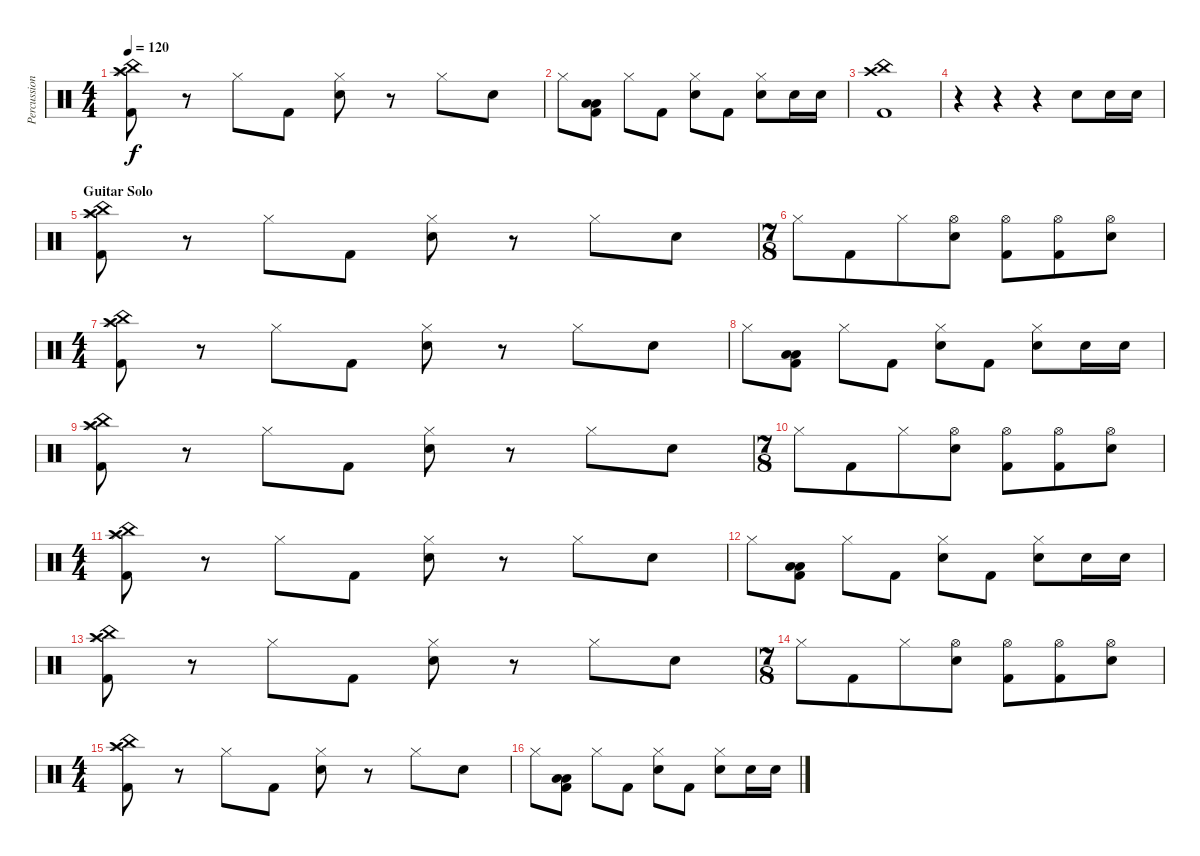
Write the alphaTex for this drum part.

\track ("Percussion" "Percussion") {instrument percussion}
\staff {score}
\articulation defaults
\ts (4 4)
\tempo 120
\clef neutral
\ks c
("Splash (hit)" "Crash high (hit)" "China (hit)" "Kick (hit) 2").8{dy f} r.8 "Hi-Hat (closed)".8 "Kick (hit) 2".8 ("Hi-Hat (closed)" "Electric Snare (hit)").8 r.8 "Hi-Hat (closed)".8 "Electric Snare (hit)".8 |
"Hi-Hat (closed)".8 ("Low Tom (hit)" "Low Floor Tom (hit)" "Kick (hit) 2").8 "Hi-Hat (closed)".8 "Kick (hit) 2".8 ("Hi-Hat (closed)" "Electric Snare (hit)").8 "Kick (hit) 2".8 ("Hi-Hat (closed)" "Electric Snare (hit)").8 "Electric Snare (hit)".16 "Electric Snare (hit)".16 |
("China (hit)" "Crash high (hit)" "Kick (hit) 2").1 |
r.4 r.4 r.4 "Electric Snare (hit)".8 "Electric Snare (hit)".16 "Electric Snare (hit)".16 |
\section ("" "Guitar Solo")
("Splash (hit)" "Crash high (hit)" "China (hit)" "Kick (hit) 2").8 r.8 "Hi-Hat (closed)".8 "Kick (hit) 2".8 ("Hi-Hat (closed)" "Electric Snare (hit)").8 r.8 "Hi-Hat (closed)".8 "Electric Snare (hit)".8 |
\ts (7 8)
"Hi-Hat (closed)".8 "Kick (hit) 2".8 "Hi-Hat (closed)".8 ("Hi-Hat (open)" "Electric Snare (hit)").8 ("Hi-Hat (open)" "Kick (hit) 2").8 ("Hi-Hat (open)" "Kick (hit) 2").8 ("Hi-Hat (open)" "Electric Snare (hit)").8 |
\ts (4 4)
("Splash (hit)" "Crash high (hit)" "China (hit)" "Kick (hit) 2").8 r.8 "Hi-Hat (closed)".8 "Kick (hit) 2".8 ("Hi-Hat (closed)" "Electric Snare (hit)").8 r.8 "Hi-Hat (closed)".8 "Electric Snare (hit)".8 |
"Hi-Hat (closed)".8 ("Low Tom (hit)" "Low Floor Tom (hit)" "Kick (hit) 2").8 "Hi-Hat (closed)".8 "Kick (hit) 2".8 ("Hi-Hat (closed)" "Electric Snare (hit)").8 "Kick (hit) 2".8 ("Hi-Hat (closed)" "Electric Snare (hit)").8 "Electric Snare (hit)".16 "Electric Snare (hit)".16 |
("Splash (hit)" "Crash high (hit)" "China (hit)" "Kick (hit) 2").8 r.8 "Hi-Hat (closed)".8 "Kick (hit) 2".8 ("Hi-Hat (closed)" "Electric Snare (hit)").8 r.8 "Hi-Hat (closed)".8 "Electric Snare (hit)".8 |
\ts (7 8)
"Hi-Hat (closed)".8 "Kick (hit) 2".8 "Hi-Hat (closed)".8 ("Hi-Hat (open)" "Electric Snare (hit)").8 ("Hi-Hat (open)" "Kick (hit) 2").8 ("Hi-Hat (open)" "Kick (hit) 2").8 ("Hi-Hat (open)" "Electric Snare (hit)").8 |
\ts (4 4)
("Splash (hit)" "Crash high (hit)" "China (hit)" "Kick (hit) 2").8 r.8 "Hi-Hat (closed)".8 "Kick (hit) 2".8 ("Hi-Hat (closed)" "Electric Snare (hit)").8 r.8 "Hi-Hat (closed)".8 "Electric Snare (hit)".8 |
"Hi-Hat (closed)".8 ("Low Tom (hit)" "Low Floor Tom (hit)" "Kick (hit) 2").8 "Hi-Hat (closed)".8 "Kick (hit) 2".8 ("Hi-Hat (closed)" "Electric Snare (hit)").8 "Kick (hit) 2".8 ("Hi-Hat (closed)" "Electric Snare (hit)").8 "Electric Snare (hit)".16 "Electric Snare (hit)".16 |
("Splash (hit)" "Crash high (hit)" "China (hit)" "Kick (hit) 2").8 r.8 "Hi-Hat (closed)".8 "Kick (hit) 2".8 ("Hi-Hat (closed)" "Electric Snare (hit)").8 r.8 "Hi-Hat (closed)".8 "Electric Snare (hit)".8 |
\ts (7 8)
"Hi-Hat (closed)".8 "Kick (hit) 2".8 "Hi-Hat (closed)".8 ("Hi-Hat (open)" "Electric Snare (hit)").8 ("Hi-Hat (open)" "Kick (hit) 2").8 ("Hi-Hat (open)" "Kick (hit) 2").8 ("Hi-Hat (open)" "Electric Snare (hit)").8 |
\ts (4 4)
("Splash (hit)" "Crash high (hit)" "China (hit)" "Kick (hit) 2").8 r.8 "Hi-Hat (closed)".8 "Kick (hit) 2".8 ("Hi-Hat (closed)" "Electric Snare (hit)").8 r.8 "Hi-Hat (closed)".8 "Electric Snare (hit)".8 |
"Hi-Hat (closed)".8 ("Low Tom (hit)" "Low Floor Tom (hit)" "Kick (hit) 2").8 "Hi-Hat (closed)".8 "Kick (hit) 2".8 ("Hi-Hat (closed)" "Electric Snare (hit)").8 "Kick (hit) 2".8 ("Hi-Hat (closed)" "Electric Snare (hit)").8 "Electric Snare (hit)".16 "Electric Snare (hit)".16
